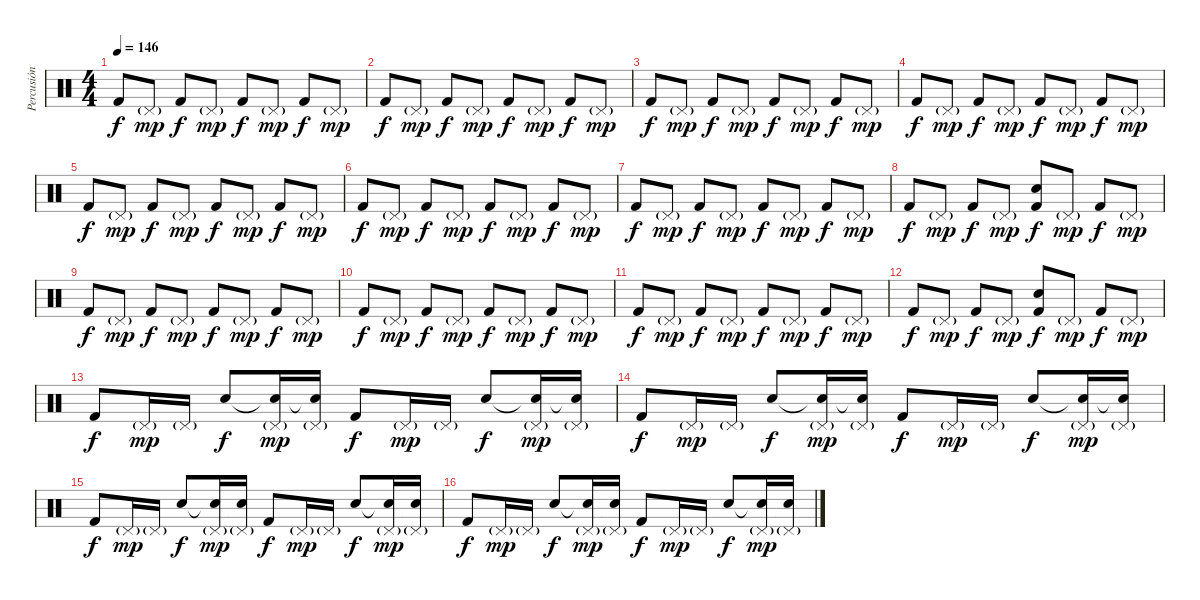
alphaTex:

\track ("Percusión" "Percusión") {instrument percussion}
\staff {score}
\articulation defaults
\ts (4 4)
\tempo 146
\clef neutral
\ks c "Kick (hit) 2".8{dy f} "Pedal Hi-Hat (hit)"{g}.8{dy mp} "Kick (hit) 2".8{dy f} "Pedal Hi-Hat (hit)"{g}.8{dy mp} "Kick (hit) 2".8{dy f} "Pedal Hi-Hat (hit)"{g}.8{dy mp} "Kick (hit) 2".8{dy f} "Pedal Hi-Hat (hit)"{g}.8{dy mp}
|
"Kick (hit) 2".8{dy f} "Pedal Hi-Hat (hit)"{g}.8{dy mp} "Kick (hit) 2".8{dy f} "Pedal Hi-Hat (hit)"{g}.8{dy mp} "Kick (hit) 2".8{dy f} "Pedal Hi-Hat (hit)"{g}.8{dy mp} "Kick (hit) 2".8{dy f} "Pedal Hi-Hat (hit)"{g}.8{dy mp} |
"Kick (hit) 2".8{dy f} "Pedal Hi-Hat (hit)"{g}.8{dy mp} "Kick (hit) 2".8{dy f} "Pedal Hi-Hat (hit)"{g}.8{dy mp} "Kick (hit) 2".8{dy f} "Pedal Hi-Hat (hit)"{g}.8{dy mp} "Kick (hit) 2".8{dy f} "Pedal Hi-Hat (hit)"{g}.8{dy mp} |
"Kick (hit) 2".8{dy f} "Pedal Hi-Hat (hit)"{g}.8{dy mp} "Kick (hit) 2".8{dy f} "Pedal Hi-Hat (hit)"{g}.8{dy mp} "Kick (hit) 2".8{dy f} "Pedal Hi-Hat (hit)"{g}.8{dy mp} "Kick (hit) 2".8{dy f} "Pedal Hi-Hat (hit)"{g}.8{dy mp} |
"Kick (hit) 2".8{dy f} "Pedal Hi-Hat (hit)"{g}.8{dy mp} "Kick (hit) 2".8{dy f} "Pedal Hi-Hat (hit)"{g}.8{dy mp} "Kick (hit) 2".8{dy f} "Pedal Hi-Hat (hit)"{g}.8{dy mp} "Kick (hit) 2".8{dy f} "Pedal Hi-Hat (hit)"{g}.8{dy mp} |
"Kick (hit) 2".8{dy f} "Pedal Hi-Hat (hit)"{g}.8{dy mp} "Kick (hit) 2".8{dy f} "Pedal Hi-Hat (hit)"{g}.8{dy mp} "Kick (hit) 2".8{dy f} "Pedal Hi-Hat (hit)"{g}.8{dy mp} "Kick (hit) 2".8{dy f} "Pedal Hi-Hat (hit)"{g}.8{dy mp} |
"Kick (hit) 2".8{dy f} "Pedal Hi-Hat (hit)"{g}.8{dy mp} "Kick (hit) 2".8{dy f} "Pedal Hi-Hat (hit)"{g}.8{dy mp} "Kick (hit) 2".8{dy f} "Pedal Hi-Hat (hit)"{g}.8{dy mp} "Kick (hit) 2".8{dy f} "Pedal Hi-Hat (hit)"{g}.8{dy mp} |
"Kick (hit) 2".8{dy f} "Pedal Hi-Hat (hit)"{g}.8{dy mp} "Kick (hit) 2".8{dy f} "Pedal Hi-Hat (hit)"{g}.8{dy mp} ("Electric Snare (hit)" "Kick (hit) 2").8{dy f} "Pedal Hi-Hat (hit)"{g}.8{dy mp} "Kick (hit) 2".8{dy f} "Pedal Hi-Hat (hit)"{g}.8{dy mp} |
"Kick (hit) 2".8{dy f} "Pedal Hi-Hat (hit)"{g}.8{dy mp} "Kick (hit) 2".8{dy f} "Pedal Hi-Hat (hit)"{g}.8{dy mp} "Kick (hit) 2".8{dy f} "Pedal Hi-Hat (hit)"{g}.8{dy mp} "Kick (hit) 2".8{dy f} "Pedal Hi-Hat (hit)"{g}.8{dy mp} |
"Kick (hit) 2".8{dy f} "Pedal Hi-Hat (hit)"{g}.8{dy mp} "Kick (hit) 2".8{dy f} "Pedal Hi-Hat (hit)"{g}.8{dy mp} "Kick (hit) 2".8{dy f} "Pedal Hi-Hat (hit)"{g}.8{dy mp} "Kick (hit) 2".8{dy f} "Pedal Hi-Hat (hit)"{g}.8{dy mp} |
"Kick (hit) 2".8{dy f} "Pedal Hi-Hat (hit)"{g}.8{dy mp} "Kick (hit) 2".8{dy f} "Pedal Hi-Hat (hit)"{g}.8{dy mp} "Kick (hit) 2".8{dy f} "Pedal Hi-Hat (hit)"{g}.8{dy mp} "Kick (hit) 2".8{dy f} "Pedal Hi-Hat (hit)"{g}.8{dy mp} |
"Kick (hit) 2".8{dy f} "Pedal Hi-Hat (hit)"{g}.8{dy mp} "Kick (hit) 2".8{dy f} "Pedal Hi-Hat (hit)"{g}.8{dy mp} ("Electric Snare (hit)" "Kick (hit) 2").8{dy f} "Pedal Hi-Hat (hit)"{g}.8{dy mp} "Kick (hit) 2".8{dy f} "Pedal Hi-Hat (hit)"{g}.8{dy mp} |
"Kick (hit) 2".8{dy f} "Pedal Hi-Hat (hit)"{g}.16{dy mp} "Pedal Hi-Hat (hit)"{g}.16 "Snare (hit) 2".8{dy f} ("Snare (hit)"{t} "Pedal Hi-Hat (hit)"{g}).16{dy mp} ("Snare (hit)"{t} "Pedal Hi-Hat (hit)"{g}).16 "Kick (hit) 2".8{dy f} "Pedal Hi-Hat (hit)"{g}.16{dy mp} "Pedal Hi-Hat (hit)"{g}.16 "Snare (hit) 2".8{dy f} ("Snare (hit)"{t} "Pedal Hi-Hat (hit)"{g}).16{dy mp} ("Snare (hit)"{t} "Pedal Hi-Hat (hit)"{g}).16 |
"Kick (hit) 2".8{dy f} "Pedal Hi-Hat (hit)"{g}.16{dy mp} "Pedal Hi-Hat (hit)"{g}.16 "Snare (hit) 2".8{dy f} ("Snare (hit)"{t} "Pedal Hi-Hat (hit)"{g}).16{dy mp} ("Snare (hit)"{t} "Pedal Hi-Hat (hit)"{g}).16 "Kick (hit) 2".8{dy f} "Pedal Hi-Hat (hit)"{g}.16{dy mp} "Pedal Hi-Hat (hit)"{g}.16 "Snare (hit) 2".8{dy f} ("Snare (hit)"{t} "Pedal Hi-Hat (hit)"{g}).16{dy mp} ("Snare (hit)"{t} "Pedal Hi-Hat (hit)"{g}).16 |
"Kick (hit) 2".8{dy f} "Pedal Hi-Hat (hit)"{g}.16{dy mp} "Pedal Hi-Hat (hit)"{g}.16 "Snare (hit) 2".8{dy f} ("Snare (hit)"{t} "Pedal Hi-Hat (hit)"{g}).16{dy mp} ("Snare (hit)"{t} "Pedal Hi-Hat (hit)"{g}).16 "Kick (hit) 2".8{dy f} "Pedal Hi-Hat (hit)"{g}.16{dy mp} "Pedal Hi-Hat (hit)"{g}.16 "Snare (hit) 2".8{dy f} ("Snare (hit)"{t} "Pedal Hi-Hat (hit)"{g}).16{dy mp} ("Snare (hit)"{t} "Pedal Hi-Hat (hit)"{g}).16 |
"Kick (hit) 2".8{dy f} "Pedal Hi-Hat (hit)"{g}.16{dy mp} "Pedal Hi-Hat (hit)"{g}.16 "Snare (hit) 2".8{dy f} ("Snare (hit)"{t} "Pedal Hi-Hat (hit)"{g}).16{dy mp} ("Snare (hit)"{t} "Pedal Hi-Hat (hit)"{g}).16 "Kick (hit) 2".8{dy f} "Pedal Hi-Hat (hit)"{g}.16{dy mp} "Pedal Hi-Hat (hit)"{g}.16 "Snare (hit) 2".8{dy f} ("Snare (hit)"{t} "Pedal Hi-Hat (hit)"{g}).16{dy mp} ("Snare (hit)"{t} "Pedal Hi-Hat (hit)"{g}).16
